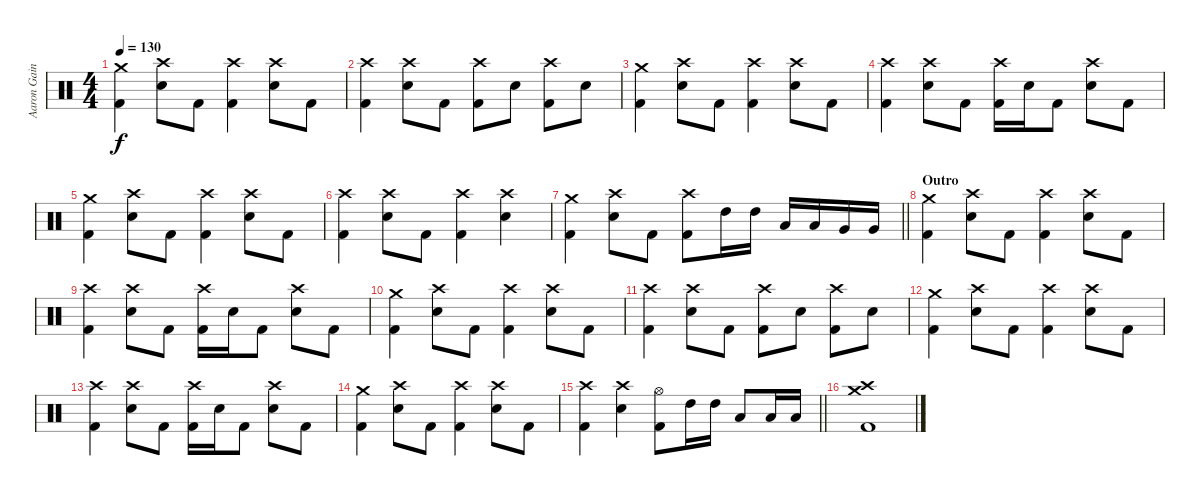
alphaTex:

\track ("Aaron Gainer - Drums" "Aaron Gain") {instrument percussion}
\staff {score}
\articulation defaults
\ts (4 4)
\tempo 130
\clef neutral
\ks c
("Crash medium (hit)" "Kick (hit) 2").4{dy f} ("Crash high (hit)" "Snare (hit) 2").8 "Kick (hit) 2".8 ("Crash high (hit)" "Kick (hit) 2").4 ("Crash high (hit)" "Snare (hit) 2").8 "Kick (hit) 2".8 |
("Crash high (hit)" "Kick (hit) 2").4 ("Crash high (hit)" "Snare (hit) 2").8 "Kick (hit) 2".8 ("Crash high (hit)" "Kick (hit) 2").8 "Snare (hit) 2".8 ("Crash high (hit)" "Kick (hit) 2").8 "Snare (hit) 2".8 |
("Crash medium (hit)" "Kick (hit) 2").4 ("Crash high (hit)" "Snare (hit) 2").8 "Kick (hit) 2".8 ("Crash high (hit)" "Kick (hit) 2").4 ("Crash high (hit)" "Snare (hit) 2").8 "Kick (hit) 2".8 |
("Crash high (hit)" "Kick (hit) 2").4 ("Crash high (hit)" "Snare (hit) 2").8 "Kick (hit) 2".8 ("Crash high (hit)" "Kick (hit) 2").16 "Snare (hit) 2".16 "Kick (hit) 2".8 ("Crash high (hit)" "Snare (hit) 2").8 "Kick (hit) 2".8 |
("Crash medium (hit)" "Kick (hit) 2").4 ("Crash high (hit)" "Snare (hit) 2").8 "Kick (hit) 2".8 ("Crash high (hit)" "Kick (hit) 2").4 ("Crash high (hit)" "Snare (hit) 2").8 "Kick (hit) 2".8 |
("Crash high (hit)" "Kick (hit) 2").4 ("Crash high (hit)" "Snare (hit) 2").8 "Kick (hit) 2".8 ("Crash high (hit)" "Kick (hit) 2").4 ("Crash high (hit)" "Snare (hit) 2").4 |
\barLineRight lightlight
("Crash medium (hit)" "Kick (hit) 2").4 ("Crash high (hit)" "Snare (hit) 2").8 "Kick (hit) 2".8 ("Crash high (hit)" "Kick (hit) 2").8 "High Tom (hit)".16 "High Tom (hit)".16 "Low Tom (hit)".16 "Low Tom (hit)".16 "Very Low Tom (hit)".16 "Very Low Tom (hit)".16 |
\section ("" "Outro")
("Crash medium (hit)" "Kick (hit) 2").4 ("Crash high (hit)" "Snare (hit) 2").8 "Kick (hit) 2".8 ("Crash high (hit)" "Kick (hit) 2").4 ("Crash high (hit)" "Snare (hit) 2").8 "Kick (hit) 2".8 |
("Crash high (hit)" "Kick (hit) 2").4 ("Crash high (hit)" "Snare (hit) 2").8 "Kick (hit) 2".8 ("Crash high (hit)" "Kick (hit) 2").16 "Snare (hit) 2".16 "Kick (hit) 2".8 ("Crash high (hit)" "Snare (hit) 2").8 "Kick (hit) 2".8 |
("Crash medium (hit)" "Kick (hit) 2").4 ("Crash high (hit)" "Snare (hit) 2").8 "Kick (hit) 2".8 ("Crash high (hit)" "Kick (hit) 2").4 ("Crash high (hit)" "Snare (hit) 2").8 "Kick (hit) 2".8 |
("Crash high (hit)" "Kick (hit) 2").4 ("Crash high (hit)" "Snare (hit) 2").8 "Kick (hit) 2".8 ("Crash high (hit)" "Kick (hit) 2").8 "Snare (hit) 2".8 ("Crash high (hit)" "Kick (hit) 2").8 "Snare (hit) 2".8 |
("Crash medium (hit)" "Kick (hit) 2").4 ("Crash high (hit)" "Snare (hit) 2").8 "Kick (hit) 2".8 ("Crash high (hit)" "Kick (hit) 2").4 ("Crash high (hit)" "Snare (hit) 2").8 "Kick (hit) 2".8 |
("Crash high (hit)" "Kick (hit) 2").4 ("Crash high (hit)" "Snare (hit) 2").8 "Kick (hit) 2".8 ("Crash high (hit)" "Kick (hit) 2").16 "Snare (hit) 2".16 "Kick (hit) 2".8 ("Crash high (hit)" "Snare (hit) 2").8 "Kick (hit) 2".8 |
("Crash medium (hit)" "Kick (hit) 2").4 ("Crash high (hit)" "Snare (hit) 2").8 "Kick (hit) 2".8 ("Crash high (hit)" "Kick (hit) 2").4 ("Crash high (hit)" "Snare (hit) 2").8 "Kick (hit) 2".8 |
\barLineRight lightlight
("Crash high (hit)" "Kick (hit) 2").4 ("Crash high (hit)" "Snare (hit) 2").4 ("Hi-Hat (open)" "Kick (hit) 2").8 "High Tom (hit)".16 "High Tom (hit)".16 "Low Tom (hit)".8 "Low Tom (hit)".16 "Low Tom (hit)".16 |
\section ("" "")
("Crash medium (hit)" "Crash high (hit)" "Kick (hit) 2").1
